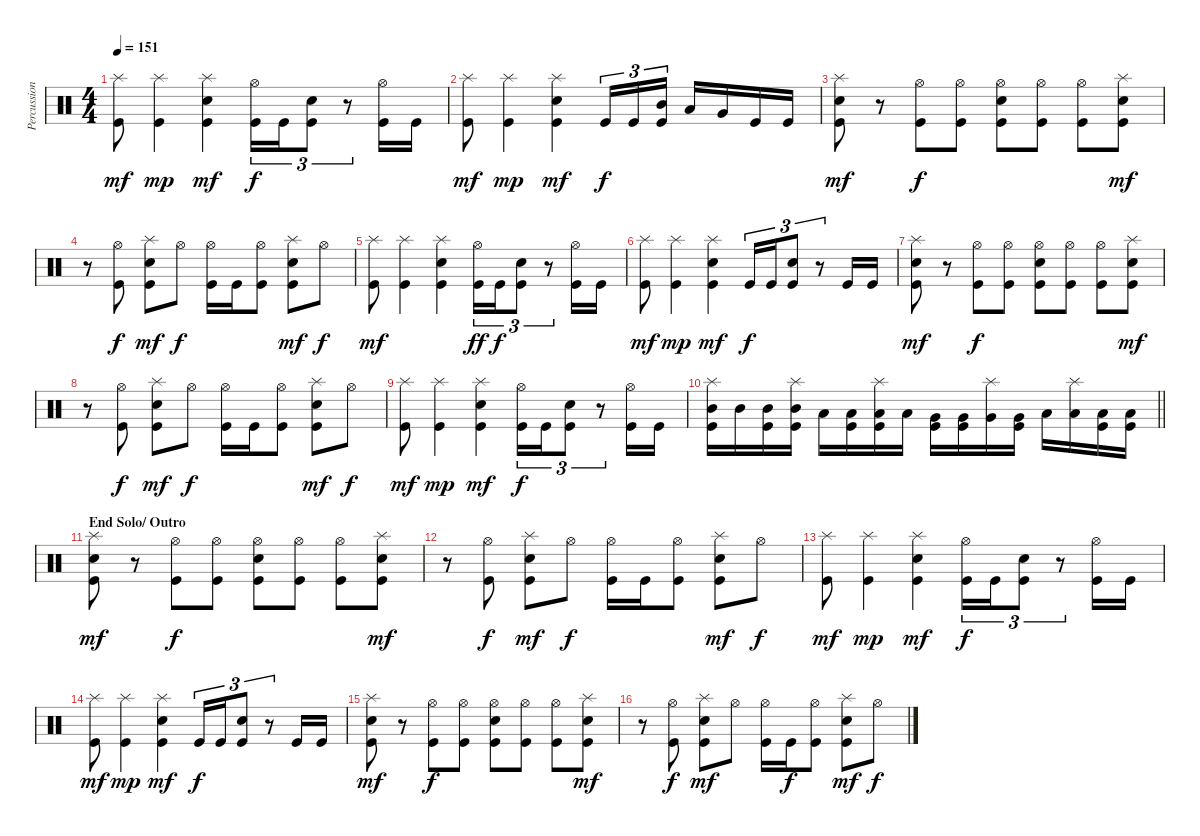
\track ("Percussion" "Percussion") {instrument percussion}
\staff {score}
\articulation defaults
\ts (4 4)
\tempo 151
\clef neutral
\ks c
("Splash (hit)" "Kick (hit)").8{dy mf} ("Splash (hit)" "Kick (hit)").4{dy mp} ("Splash (hit)" "Snare (hit) 2" "Kick (hit)").4{dy mf} ("Hi-Hat (open)" "Kick (hit)").16{tu (3 2) dy f} "Kick (hit)".16{tu (3 2)} ("Snare (hit) 2" "Kick (hit)").8{tu (3 2)} r.8{tu (3 2)} ("Hi-Hat (open)" "Kick (hit)").16 "Kick (hit)".16 |
("Splash (hit)" "Kick (hit)").8{dy mf} ("Splash (hit)" "Kick (hit)").4{dy mp} ("Splash (hit)" "Snare (hit) 2" "Kick (hit)").4{dy mf} "Kick (hit)".16{tu (3 2) dy f} "Kick (hit)".16{tu (3 2)} ("Mid Tom (hit)" "Kick (hit)").16{tu (3 2)} "Low Tom (hit)".16 "Very Low Tom (hit)".16 "Kick (hit)".16 "Kick (hit)".16 |
("Splash (hit)" "Snare (hit) 2" "Kick (hit)").8{dy mf} r.8 ("Hi-Hat (open)" "Kick (hit)").8{dy f} ("Hi-Hat (open)" "Kick (hit)").8 ("Hi-Hat (open)" "Snare (hit) 2" "Kick (hit)").8 ("Hi-Hat (open)" "Kick (hit)").8 ("Hi-Hat (open)" "Kick (hit)").8 ("Splash (hit)" "Snare (hit) 2" "Kick (hit)").8{dy mf} |
r.8 ("Hi-Hat (open)" "Kick (hit)").8{dy f} ("Splash (hit)" "Snare (hit) 2" "Kick (hit)").8{dy mf} "Hi-Hat (open)".8{dy f} ("Hi-Hat (open)" "Kick (hit)").16 "Kick (hit)".16 ("Hi-Hat (open)" "Kick (hit)").8 ("Splash (hit)" "Snare (hit) 2" "Kick (hit)").8{dy mf} "Hi-Hat (open)".8{dy f} |
("Splash (hit)" "Kick (hit)").8{dy mf} ("Splash (hit)" "Kick (hit)").4 ("Splash (hit)" "Snare (hit) 2" "Kick (hit)").4 ("Hi-Hat (open)" "Kick (hit)").16{tu (3 2) dy ff} "Kick (hit)".16{tu (3 2) dy f} ("Snare (hit) 2" "Kick (hit)").8{tu (3 2)} r.8{tu (3 2)} ("Hi-Hat (open)" "Kick (hit)").16 "Kick (hit)".16 |
("Splash (hit)" "Kick (hit)").8{dy mf} ("Splash (hit)" "Kick (hit)").4{dy mp} ("Splash (hit)" "Snare (hit) 2" "Kick (hit)").4{dy mf} "Kick (hit)".16{tu (3 2) dy f} "Kick (hit)".16{tu (3 2)} ("Snare (hit) 2" "Kick (hit)").8{tu (3 2)} r.8{tu (3 2)} "Kick (hit)".16 "Kick (hit)".16 |
("Splash (hit)" "Snare (hit) 2" "Kick (hit)").8{dy mf} r.8 ("Hi-Hat (open)" "Kick (hit)").8{dy f} ("Hi-Hat (open)" "Kick (hit)").8 ("Hi-Hat (open)" "Snare (hit) 2" "Kick (hit)").8 ("Hi-Hat (open)" "Kick (hit)").8 ("Hi-Hat (open)" "Kick (hit)").8 ("Splash (hit)" "Snare (hit) 2" "Kick (hit)").8{dy mf} |
r.8 ("Hi-Hat (open)" "Kick (hit)").8{dy f} ("Splash (hit)" "Snare (hit) 2" "Kick (hit)").8{dy mf} "Hi-Hat (open)".8{dy f} ("Hi-Hat (open)" "Kick (hit)").16 "Kick (hit)".16 ("Hi-Hat (open)" "Kick (hit)").8 ("Splash (hit)" "Snare (hit) 2" "Kick (hit)").8{dy mf} "Hi-Hat (open)".8{dy f} |
("Splash (hit)" "Kick (hit)").8{dy mf} ("Splash (hit)" "Kick (hit)").4{dy mp} ("Splash (hit)" "Snare (hit) 2" "Kick (hit)").4{dy mf} ("Hi-Hat (open)" "Kick (hit)").16{tu (3 2) dy f} "Kick (hit)".16{tu (3 2)} ("Snare (hit) 2" "Kick (hit)").8{tu (3 2)} r.8{tu (3 2)} ("Hi-Hat (open)" "Kick (hit)").16 "Kick (hit)".16 |
\barLineRight lightlight
("Splash (hit)" "Mid Tom (hit)" "Kick (hit)").16 "Mid Tom (hit)".16 ("Mid Tom (hit)" "Kick (hit)").16 ("Splash (hit)" "Mid Tom (hit)" "Kick (hit)").16 "Low Tom (hit)".16 ("Low Tom (hit)" "Kick (hit)").16 ("Splash (hit)" "Low Tom (hit)" "Kick (hit)").16 "Low Tom (hit)".16 ("Very Low Tom (hit)" "Kick (hit)").16 ("Very Low Tom (hit)" "Kick (hit)").16 ("Splash (hit)" "Very Low Tom (hit)").16 ("Very Low Tom (hit)" "Kick (hit)").16 "Low Floor Tom (hit)".16 ("Splash (hit)" "Low Floor Tom (hit)").16 ("Low Floor Tom (hit)" "Kick (hit)").16 ("Low Floor Tom (hit)" "Kick (hit)").16 |
\section ("" "End Solo/ Outro")
("Splash (hit)" "Snare (hit) 2" "Kick (hit)").8{dy mf} r.8 ("Hi-Hat (open)" "Kick (hit)").8{dy f} ("Hi-Hat (open)" "Kick (hit)").8 ("Hi-Hat (open)" "Snare (hit) 2" "Kick (hit)").8 ("Hi-Hat (open)" "Kick (hit)").8 ("Hi-Hat (open)" "Kick (hit)").8 ("Splash (hit)" "Snare (hit) 2" "Kick (hit)").8{dy mf} |
r.8 ("Hi-Hat (open)" "Kick (hit)").8{dy f} ("Splash (hit)" "Snare (hit) 2" "Kick (hit)").8{dy mf} "Hi-Hat (open)".8{dy f} ("Hi-Hat (open)" "Kick (hit)").16 "Kick (hit)".16 ("Hi-Hat (open)" "Kick (hit)").8 ("Splash (hit)" "Snare (hit) 2" "Kick (hit)").8{dy mf} "Hi-Hat (open)".8{dy f} |
("Splash (hit)" "Kick (hit)").8{dy mf} ("Splash (hit)" "Kick (hit)").4{dy mp} ("Splash (hit)" "Snare (hit) 2" "Kick (hit)").4{dy mf} ("Hi-Hat (open)" "Kick (hit)").16{tu (3 2) dy f} "Kick (hit)".16{tu (3 2)} ("Snare (hit) 2" "Kick (hit)").8{tu (3 2)} r.8{tu (3 2)} ("Hi-Hat (open)" "Kick (hit)").16 "Kick (hit)".16 |
("Splash (hit)" "Kick (hit)").8{dy mf} ("Splash (hit)" "Kick (hit)").4{dy mp} ("Splash (hit)" "Snare (hit) 2" "Kick (hit)").4{dy mf} "Kick (hit)".16{tu (3 2) dy f} "Kick (hit)".16{tu (3 2)} ("Snare (hit) 2" "Kick (hit)").8{tu (3 2)} r.8{tu (3 2)} "Kick (hit)".16 "Kick (hit)".16 |
("Splash (hit)" "Snare (hit) 2" "Kick (hit)").8{dy mf} r.8 ("Hi-Hat (open)" "Kick (hit)").8{dy f} ("Hi-Hat (open)" "Kick (hit)").8 ("Hi-Hat (open)" "Snare (hit) 2" "Kick (hit)").8 ("Hi-Hat (open)" "Kick (hit)").8 ("Hi-Hat (open)" "Kick (hit)").8 ("Splash (hit)" "Snare (hit) 2" "Kick (hit)").8{dy mf} |
r.8 ("Hi-Hat (open)" "Kick (hit)").8{dy f} ("Splash (hit)" "Snare (hit) 2" "Kick (hit)").8{dy mf} "Hi-Hat (open)".8 ("Hi-Hat (open)" "Kick (hit)").16 "Kick (hit)".16{dy f} ("Hi-Hat (open)" "Kick (hit)").8 ("Splash (hit)" "Snare (hit) 2" "Kick (hit)").8{dy mf} "Hi-Hat (open)".8{dy f}
